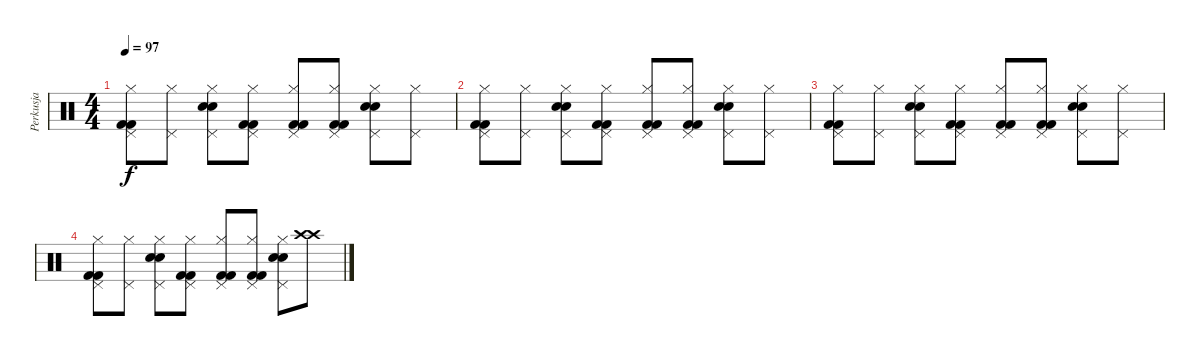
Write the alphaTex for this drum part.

\track ("Perkusja" "Perkusja") {instrument percussion}
\staff {score}
\articulation defaults
\ts (4 4)
\tempo 97
\clef neutral
\ks c
("Kick (hit) 2" "Kick (hit) 2" "Hi-Hat (closed)" "Pedal Hi-Hat (hit)").8{dy f} ("Hi-Hat (closed)" "Pedal Hi-Hat (hit)").8 ("Electric Snare (hit)" "Electric Snare (hit)" "Hi-Hat (closed)" "Pedal Hi-Hat (hit)").8 ("Kick (hit) 2" "Kick (hit) 2" "Hi-Hat (closed)" "Pedal Hi-Hat (hit)").8 ("Kick (hit) 2" "Kick (hit) 2" "Hi-Hat (closed)" "Pedal Hi-Hat (hit)").8 ("Kick (hit) 2" "Kick (hit) 2" "Hi-Hat (closed)" "Pedal Hi-Hat (hit)").8 ("Electric Snare (hit)" "Electric Snare (hit)" "Hi-Hat (closed)" "Pedal Hi-Hat (hit)").8 ("Hi-Hat (closed)" "Pedal Hi-Hat (hit)").8 |
("Kick (hit) 2" "Kick (hit) 2" "Hi-Hat (closed)" "Pedal Hi-Hat (hit)").8 ("Hi-Hat (closed)" "Pedal Hi-Hat (hit)").8 ("Electric Snare (hit)" "Electric Snare (hit)" "Hi-Hat (closed)" "Pedal Hi-Hat (hit)").8 ("Kick (hit) 2" "Kick (hit) 2" "Hi-Hat (closed)" "Pedal Hi-Hat (hit)").8 ("Kick (hit) 2" "Kick (hit) 2" "Hi-Hat (closed)" "Pedal Hi-Hat (hit)").8 ("Kick (hit) 2" "Kick (hit) 2" "Hi-Hat (closed)" "Pedal Hi-Hat (hit)").8 ("Electric Snare (hit)" "Electric Snare (hit)" "Hi-Hat (closed)" "Pedal Hi-Hat (hit)").8 ("Hi-Hat (closed)" "Pedal Hi-Hat (hit)").8 |
("Kick (hit) 2" "Kick (hit) 2" "Hi-Hat (closed)" "Pedal Hi-Hat (hit)").8 ("Hi-Hat (closed)" "Pedal Hi-Hat (hit)").8 ("Electric Snare (hit)" "Electric Snare (hit)" "Hi-Hat (closed)" "Pedal Hi-Hat (hit)").8 ("Kick (hit) 2" "Kick (hit) 2" "Hi-Hat (closed)" "Pedal Hi-Hat (hit)").8 ("Kick (hit) 2" "Kick (hit) 2" "Hi-Hat (closed)" "Pedal Hi-Hat (hit)").8 ("Kick (hit) 2" "Kick (hit) 2" "Hi-Hat (closed)" "Pedal Hi-Hat (hit)").8 ("Electric Snare (hit)" "Electric Snare (hit)" "Hi-Hat (closed)" "Pedal Hi-Hat (hit)").8 ("Hi-Hat (closed)" "Pedal Hi-Hat (hit)").8 |
("Kick (hit) 2" "Kick (hit) 2" "Hi-Hat (closed)" "Pedal Hi-Hat (hit)").8 ("Hi-Hat (closed)" "Pedal Hi-Hat (hit)").8 ("Electric Snare (hit)" "Electric Snare (hit)" "Hi-Hat (closed)" "Pedal Hi-Hat (hit)").8 ("Kick (hit) 2" "Kick (hit) 2" "Hi-Hat (closed)" "Pedal Hi-Hat (hit)").8 ("Kick (hit) 2" "Kick (hit) 2" "Hi-Hat (closed)" "Pedal Hi-Hat (hit)").8 ("Kick (hit) 2" "Kick (hit) 2" "Hi-Hat (closed)" "Pedal Hi-Hat (hit)").8 ("Electric Snare (hit)" "Electric Snare (hit)" "Hi-Hat (closed)" "Pedal Hi-Hat (hit)").8 ("Crash high (hit)" "Crash high (hit)").8
